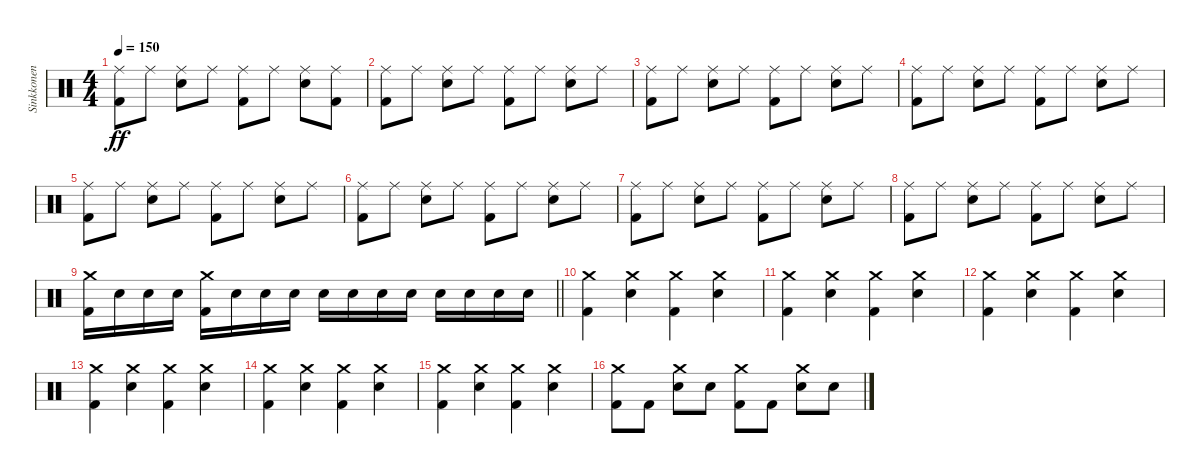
\track ("Sinkkonen" "Sinkkonen") {instrument percussion}
\staff {score}
\articulation defaults
\ts (4 4)
\tempo 150
\clef neutral
\ks c
("Ride (middle)" "Kick (hit) 2").8{dy ff} "Ride (middle)".8 ("Ride (middle)" "Snare (hit) 2").8 "Ride (middle)".8 ("Ride (middle)" "Kick (hit) 2").8 "Ride (middle)".8 ("Ride (middle)" "Snare (hit) 2").8 ("Ride (middle)" "Kick (hit) 2").8 |
("Ride (middle)" "Kick (hit) 2").8 "Ride (middle)".8 ("Ride (middle)" "Snare (hit) 2").8 "Ride (middle)".8 ("Ride (middle)" "Kick (hit) 2").8 "Ride (middle)".8 ("Ride (middle)" "Snare (hit) 2").8 "Ride (middle)".8 |
("Ride (middle)" "Kick (hit) 2").8 "Ride (middle)".8 ("Ride (middle)" "Snare (hit) 2").8 "Ride (middle)".8 ("Ride (middle)" "Kick (hit) 2").8 "Ride (middle)".8 ("Ride (middle)" "Snare (hit) 2").8 "Ride (middle)".8 |
("Ride (middle)" "Kick (hit) 2").8 "Ride (middle)".8 ("Ride (middle)" "Snare (hit) 2").8 "Ride (middle)".8 ("Ride (middle)" "Kick (hit) 2").8 "Ride (middle)".8 ("Ride (middle)" "Snare (hit) 2").8 "Ride (middle)".8 |
("Ride (middle)" "Kick (hit) 2").8 "Ride (middle)".8 ("Ride (middle)" "Snare (hit) 2").8 "Ride (middle)".8 ("Ride (middle)" "Kick (hit) 2").8 "Ride (middle)".8 ("Ride (middle)" "Snare (hit) 2").8 "Ride (middle)".8 |
("Ride (middle)" "Kick (hit) 2").8 "Ride (middle)".8 ("Ride (middle)" "Snare (hit) 2").8 "Ride (middle)".8 ("Ride (middle)" "Kick (hit) 2").8 "Ride (middle)".8 ("Ride (middle)" "Snare (hit) 2").8 "Ride (middle)".8 |
("Ride (middle)" "Kick (hit) 2").8 "Ride (middle)".8 ("Ride (middle)" "Snare (hit) 2").8 "Ride (middle)".8 ("Ride (middle)" "Kick (hit) 2").8 "Ride (middle)".8 ("Ride (middle)" "Snare (hit) 2").8 "Ride (middle)".8 |
("Ride (middle)" "Kick (hit) 2").8 "Ride (middle)".8 ("Ride (middle)" "Snare (hit) 2").8 "Ride (middle)".8 ("Ride (middle)" "Kick (hit) 2").8 "Ride (middle)".8 ("Ride (middle)" "Snare (hit) 2").8 "Ride (middle)".8 |
\barLineRight lightlight
("Crash medium (hit)" "Kick (hit) 2").16 "Snare (hit) 2".16 "Snare (hit) 2".16 "Snare (hit) 2".16 ("Crash medium (hit)" "Kick (hit) 2").16 "Snare (hit) 2".16 "Snare (hit) 2".16 "Snare (hit) 2".16 "Snare (hit) 2".16 "Snare (hit) 2".16 "Snare (hit) 2".16 "Snare (hit) 2".16 "Snare (hit) 2".16 "Snare (hit) 2".16 "Snare (hit) 2".16 "Snare (hit) 2".16 |
\section ("" "")
("Crash medium (hit)" "Kick (hit) 2").4 ("Crash medium (hit)" "Snare (hit) 2").4 ("Crash medium (hit)" "Kick (hit) 2").4 ("Crash medium (hit)" "Snare (hit) 2").4 |
("Crash medium (hit)" "Kick (hit) 2").4 ("Crash medium (hit)" "Snare (hit) 2").4 ("Crash medium (hit)" "Kick (hit) 2").4 ("Crash medium (hit)" "Snare (hit) 2").4 |
("Crash medium (hit)" "Kick (hit) 2").4 ("Crash medium (hit)" "Snare (hit) 2").4 ("Crash medium (hit)" "Kick (hit) 2").4 ("Crash medium (hit)" "Snare (hit) 2").4 |
("Crash medium (hit)" "Kick (hit) 2").4 ("Crash medium (hit)" "Snare (hit) 2").4 ("Crash medium (hit)" "Kick (hit) 2").4 ("Crash medium (hit)" "Snare (hit) 2").4 |
("Crash medium (hit)" "Kick (hit) 2").4 ("Crash medium (hit)" "Snare (hit) 2").4 ("Crash medium (hit)" "Kick (hit) 2").4 ("Crash medium (hit)" "Snare (hit) 2").4 |
("Crash medium (hit)" "Kick (hit) 2").4 ("Crash medium (hit)" "Snare (hit) 2").4 ("Crash medium (hit)" "Kick (hit) 2").4 ("Crash medium (hit)" "Snare (hit) 2").4 |
("Crash medium (hit)" "Kick (hit) 2").8 "Kick (hit) 2".8 ("Crash medium (hit)" "Snare (hit) 2").8 "Snare (hit) 2".8 ("Crash medium (hit)" "Kick (hit) 2").8 "Kick (hit) 2".8 ("Crash medium (hit)" "Snare (hit) 2").8 "Snare (hit) 2".8
